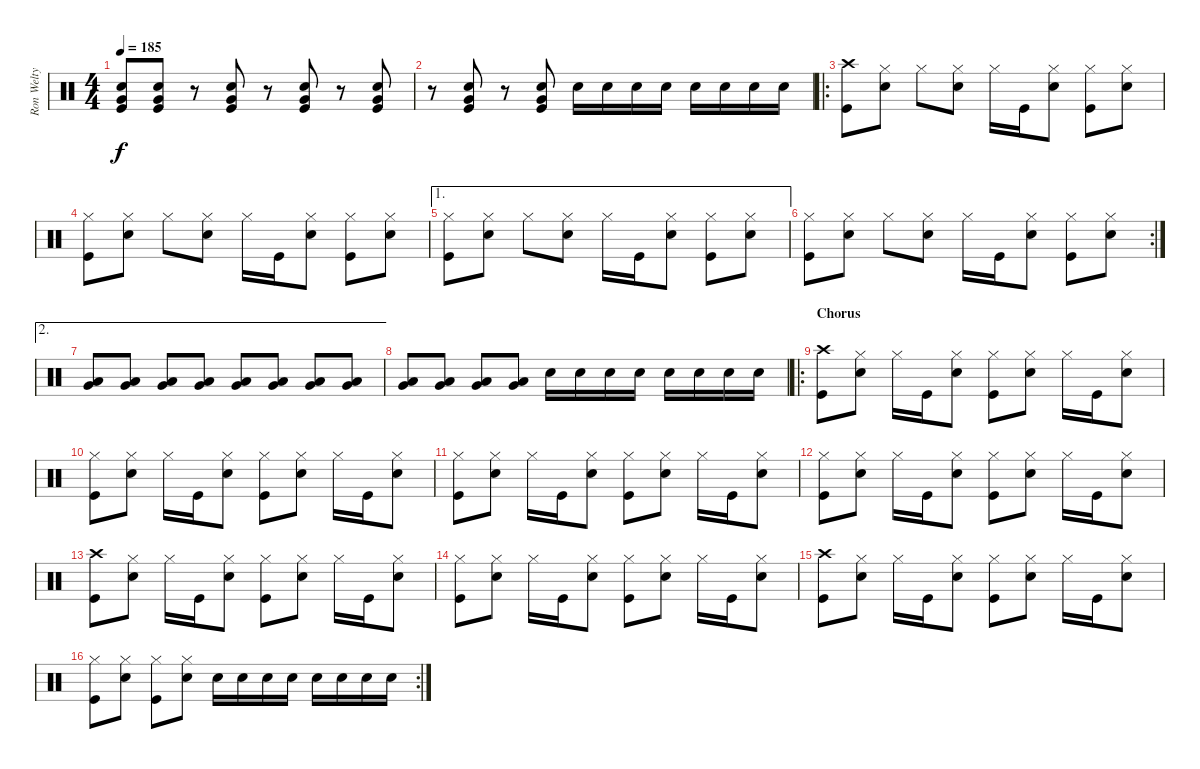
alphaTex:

\track ("Ron Welty" "Ron Welty") {instrument percussion}
\staff {score}
\articulation defaults
\ts (4 4)
\tempo 185
\clef neutral
\ks c
("Very Low Tom (hit)" "Electric Snare (hit)" "Kick (hit)").8{dy f} ("Very Low Tom (hit)" "Electric Snare (hit)" "Kick (hit)").8 r.8 ("Very Low Tom (hit)" "Electric Snare (hit)" "Kick (hit)").8 r.8 ("Very Low Tom (hit)" "Electric Snare (hit)" "Kick (hit)").8 r.8 ("Very Low Tom (hit)" "Electric Snare (hit)" "Kick (hit)").8 |
r.8 ("Very Low Tom (hit)" "Electric Snare (hit)" "Kick (hit)").8 r.8 ("Very Low Tom (hit)" "Electric Snare (hit)" "Kick (hit)").8 "Electric Snare (hit)".16 "Electric Snare (hit)".16 "Electric Snare (hit)".16 "Electric Snare (hit)".16 "Electric Snare (hit)".16 "Electric Snare (hit)".16 "Electric Snare (hit)".16 "Electric Snare (hit)".16 |
\ro
("Crash high (hit)" "Kick (hit)").8 ("Hi-Hat (closed)" "Electric Snare (hit)").8 "Hi-Hat (closed)".8 ("Hi-Hat (closed)" "Electric Snare (hit)").8 "Hi-Hat (closed)".16 "Kick (hit)".16 ("Hi-Hat (closed)" "Electric Snare (hit)").8 ("Hi-Hat (closed)" "Kick (hit)").8 ("Hi-Hat (closed)" "Electric Snare (hit)").8 |
("Hi-Hat (closed)" "Kick (hit)").8 ("Hi-Hat (closed)" "Electric Snare (hit)").8 "Hi-Hat (closed)".8 ("Hi-Hat (closed)" "Electric Snare (hit)").8 "Hi-Hat (closed)".16 "Kick (hit)".16 ("Hi-Hat (closed)" "Electric Snare (hit)").8 ("Hi-Hat (closed)" "Kick (hit)").8 ("Hi-Hat (closed)" "Electric Snare (hit)").8 |
\ae 1
("Hi-Hat (closed)" "Kick (hit)").8 ("Hi-Hat (closed)" "Electric Snare (hit)").8 "Hi-Hat (closed)".8 ("Hi-Hat (closed)" "Electric Snare (hit)").8 "Hi-Hat (closed)".16 "Kick (hit)".16 ("Hi-Hat (closed)" "Electric Snare (hit)").8 ("Hi-Hat (closed)" "Kick (hit)").8 ("Hi-Hat (closed)" "Electric Snare (hit)").8 |
\rc 2
("Hi-Hat (closed)" "Kick (hit)").8 ("Hi-Hat (closed)" "Electric Snare (hit)").8 "Hi-Hat (closed)".8 ("Hi-Hat (closed)" "Electric Snare (hit)").8 "Hi-Hat (closed)".16 "Kick (hit)".16 ("Hi-Hat (closed)" "Electric Snare (hit)").8 ("Hi-Hat (closed)" "Kick (hit)").8 ("Hi-Hat (closed)" "Electric Snare (hit)").8 |
\ae 2
("Low Tom (hit)" "Very Low Tom (hit)").8 ("Low Tom (hit)" "Very Low Tom (hit)").8 ("Low Tom (hit)" "Very Low Tom (hit)").8 ("Low Tom (hit)" "Very Low Tom (hit)").8 ("Low Tom (hit)" "Very Low Tom (hit)").8 ("Low Tom (hit)" "Very Low Tom (hit)").8 ("Low Tom (hit)" "Very Low Tom (hit)").8 ("Low Tom (hit)" "Very Low Tom (hit)").8 |
("Low Tom (hit)" "Very Low Tom (hit)").8 ("Low Tom (hit)" "Very Low Tom (hit)").8 ("Low Tom (hit)" "Very Low Tom (hit)").8 ("Low Tom (hit)" "Very Low Tom (hit)").8 "Electric Snare (hit)".16 "Electric Snare (hit)".16 "Electric Snare (hit)".16 "Electric Snare (hit)".16 "Electric Snare (hit)".16 "Electric Snare (hit)".16 "Electric Snare (hit)".16 "Electric Snare (hit)".16 |
\ro
\section ("" "Chorus")
("Crash high (hit)" "Kick (hit)").8 ("Hi-Hat (closed)" "Electric Snare (hit)").8 "Hi-Hat (closed)".16 "Kick (hit)".16 ("Hi-Hat (closed)" "Electric Snare (hit)").8 ("Hi-Hat (closed)" "Kick (hit)").8 ("Hi-Hat (closed)" "Electric Snare (hit)").8 "Hi-Hat (closed)".16 "Kick (hit)".16 ("Hi-Hat (closed)" "Electric Snare (hit)").8 |
("Hi-Hat (closed)" "Kick (hit)").8 ("Hi-Hat (closed)" "Electric Snare (hit)").8 "Hi-Hat (closed)".16 "Kick (hit)".16 ("Hi-Hat (closed)" "Electric Snare (hit)").8 ("Hi-Hat (closed)" "Kick (hit)").8 ("Hi-Hat (closed)" "Electric Snare (hit)").8 "Hi-Hat (closed)".16 "Kick (hit)".16 ("Hi-Hat (closed)" "Electric Snare (hit)").8 |
("Hi-Hat (closed)" "Kick (hit)").8 ("Hi-Hat (closed)" "Electric Snare (hit)").8 "Hi-Hat (closed)".16 "Kick (hit)".16 ("Hi-Hat (closed)" "Electric Snare (hit)").8 ("Hi-Hat (closed)" "Kick (hit)").8 ("Hi-Hat (closed)" "Electric Snare (hit)").8 "Hi-Hat (closed)".16 "Kick (hit)".16 ("Hi-Hat (closed)" "Electric Snare (hit)").8 |
("Hi-Hat (closed)" "Kick (hit)").8 ("Hi-Hat (closed)" "Electric Snare (hit)").8 "Hi-Hat (closed)".16 "Kick (hit)".16 ("Hi-Hat (closed)" "Electric Snare (hit)").8 ("Hi-Hat (closed)" "Kick (hit)").8 ("Hi-Hat (closed)" "Electric Snare (hit)").8 "Hi-Hat (closed)".16 "Kick (hit)".16 ("Hi-Hat (closed)" "Electric Snare (hit)").8 |
("Crash high (hit)" "Kick (hit)").8 ("Hi-Hat (closed)" "Electric Snare (hit)").8 "Hi-Hat (closed)".16 "Kick (hit)".16 ("Hi-Hat (closed)" "Electric Snare (hit)").8 ("Hi-Hat (closed)" "Kick (hit)").8 ("Hi-Hat (closed)" "Electric Snare (hit)").8 "Hi-Hat (closed)".16 "Kick (hit)".16 ("Hi-Hat (closed)" "Electric Snare (hit)").8 |
("Hi-Hat (closed)" "Kick (hit)").8 ("Hi-Hat (closed)" "Electric Snare (hit)").8 "Hi-Hat (closed)".16 "Kick (hit)".16 ("Hi-Hat (closed)" "Electric Snare (hit)").8 ("Hi-Hat (closed)" "Kick (hit)").8 ("Hi-Hat (closed)" "Electric Snare (hit)").8 "Hi-Hat (closed)".16 "Kick (hit)".16 ("Hi-Hat (closed)" "Electric Snare (hit)").8 |
("Crash high (hit)" "Kick (hit)").8 ("Hi-Hat (closed)" "Electric Snare (hit)").8 "Hi-Hat (closed)".16 "Kick (hit)".16 ("Hi-Hat (closed)" "Electric Snare (hit)").8 ("Hi-Hat (closed)" "Kick (hit)").8 ("Hi-Hat (closed)" "Electric Snare (hit)").8 "Hi-Hat (closed)".16 "Kick (hit)".16 ("Hi-Hat (closed)" "Electric Snare (hit)").8 |
\rc 2
("Hi-Hat (closed)" "Kick (hit)").8 ("Hi-Hat (closed)" "Electric Snare (hit)").8 ("Hi-Hat (closed)" "Kick (hit)").8 ("Hi-Hat (closed)" "Electric Snare (hit)").8 "Electric Snare (hit)".16 "Electric Snare (hit)".16 "Electric Snare (hit)".16 "Electric Snare (hit)".16 "Electric Snare (hit)".16 "Electric Snare (hit)".16 "Electric Snare (hit)".16 "Electric Snare (hit)".16
